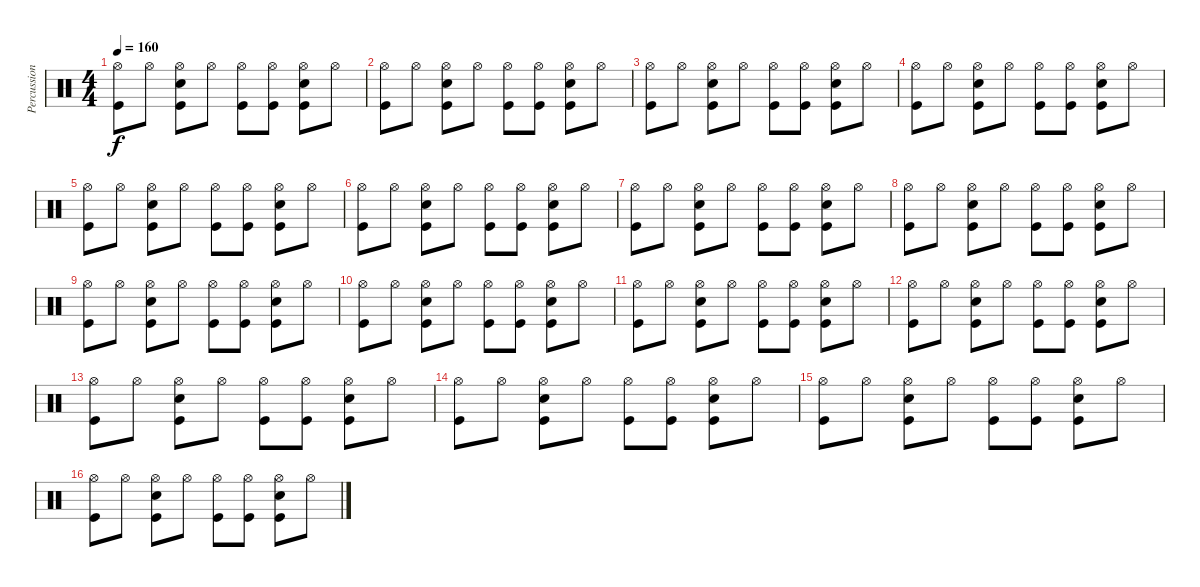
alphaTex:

\track ("Percussions" "Percussion") {instrument percussion}
\staff {score}
\articulation defaults
\ts (4 4)
\tempo 160
\clef neutral
\ks c
("Hi-Hat (open)" "Kick (hit)").8{dy f} "Hi-Hat (open)".8 ("Hi-Hat (open)" "Electric Snare (hit)" "Kick (hit)").8 "Hi-Hat (open)".8 ("Hi-Hat (open)" "Kick (hit)").8 ("Hi-Hat (open)" "Kick (hit)").8 ("Hi-Hat (open)" "Electric Snare (hit)" "Kick (hit)").8 "Hi-Hat (open)".8 |
("Hi-Hat (open)" "Kick (hit)").8 "Hi-Hat (open)".8 ("Hi-Hat (open)" "Electric Snare (hit)" "Kick (hit)").8 "Hi-Hat (open)".8 ("Hi-Hat (open)" "Kick (hit)").8 ("Hi-Hat (open)" "Kick (hit)").8 ("Hi-Hat (open)" "Electric Snare (hit)" "Kick (hit)").8 "Hi-Hat (open)".8 |
("Hi-Hat (open)" "Kick (hit)").8 "Hi-Hat (open)".8 ("Hi-Hat (open)" "Electric Snare (hit)" "Kick (hit)").8 "Hi-Hat (open)".8 ("Hi-Hat (open)" "Kick (hit)").8 ("Hi-Hat (open)" "Kick (hit)").8 ("Hi-Hat (open)" "Electric Snare (hit)" "Kick (hit)").8 "Hi-Hat (open)".8 |
("Hi-Hat (open)" "Kick (hit)").8 "Hi-Hat (open)".8 ("Hi-Hat (open)" "Electric Snare (hit)" "Kick (hit)").8 "Hi-Hat (open)".8 ("Hi-Hat (open)" "Kick (hit)").8 ("Hi-Hat (open)" "Kick (hit)").8 ("Hi-Hat (open)" "Electric Snare (hit)" "Kick (hit)").8 "Hi-Hat (open)".8 |
("Hi-Hat (open)" "Kick (hit)").8 "Hi-Hat (open)".8 ("Hi-Hat (open)" "Electric Snare (hit)" "Kick (hit)").8 "Hi-Hat (open)".8 ("Hi-Hat (open)" "Kick (hit)").8 ("Hi-Hat (open)" "Kick (hit)").8 ("Hi-Hat (open)" "Electric Snare (hit)" "Kick (hit)").8 "Hi-Hat (open)".8 |
("Hi-Hat (open)" "Kick (hit)").8 "Hi-Hat (open)".8 ("Hi-Hat (open)" "Electric Snare (hit)" "Kick (hit)").8 "Hi-Hat (open)".8 ("Hi-Hat (open)" "Kick (hit)").8 ("Hi-Hat (open)" "Kick (hit)").8 ("Hi-Hat (open)" "Electric Snare (hit)" "Kick (hit)").8 "Hi-Hat (open)".8 |
("Hi-Hat (open)" "Kick (hit)").8 "Hi-Hat (open)".8 ("Hi-Hat (open)" "Electric Snare (hit)" "Kick (hit)").8 "Hi-Hat (open)".8 ("Hi-Hat (open)" "Kick (hit)").8 ("Hi-Hat (open)" "Kick (hit)").8 ("Hi-Hat (open)" "Electric Snare (hit)" "Kick (hit)").8 "Hi-Hat (open)".8 |
("Hi-Hat (open)" "Kick (hit)").8 "Hi-Hat (open)".8 ("Hi-Hat (open)" "Electric Snare (hit)" "Kick (hit)").8 "Hi-Hat (open)".8 ("Hi-Hat (open)" "Kick (hit)").8 ("Hi-Hat (open)" "Kick (hit)").8 ("Hi-Hat (open)" "Electric Snare (hit)" "Kick (hit)").8 "Hi-Hat (open)".8 |
("Hi-Hat (open)" "Kick (hit)").8 "Hi-Hat (open)".8 ("Hi-Hat (open)" "Electric Snare (hit)" "Kick (hit)").8 "Hi-Hat (open)".8 ("Hi-Hat (open)" "Kick (hit)").8 ("Hi-Hat (open)" "Kick (hit)").8 ("Hi-Hat (open)" "Electric Snare (hit)" "Kick (hit)").8 "Hi-Hat (open)".8 |
("Hi-Hat (open)" "Kick (hit)").8 "Hi-Hat (open)".8 ("Hi-Hat (open)" "Electric Snare (hit)" "Kick (hit)").8 "Hi-Hat (open)".8 ("Hi-Hat (open)" "Kick (hit)").8 ("Hi-Hat (open)" "Kick (hit)").8 ("Hi-Hat (open)" "Electric Snare (hit)" "Kick (hit)").8 "Hi-Hat (open)".8 |
("Hi-Hat (open)" "Kick (hit)").8 "Hi-Hat (open)".8 ("Hi-Hat (open)" "Electric Snare (hit)" "Kick (hit)").8 "Hi-Hat (open)".8 ("Hi-Hat (open)" "Kick (hit)").8 ("Hi-Hat (open)" "Kick (hit)").8 ("Hi-Hat (open)" "Electric Snare (hit)" "Kick (hit)").8 "Hi-Hat (open)".8 |
("Hi-Hat (open)" "Kick (hit)").8 "Hi-Hat (open)".8 ("Hi-Hat (open)" "Electric Snare (hit)" "Kick (hit)").8 "Hi-Hat (open)".8 ("Hi-Hat (open)" "Kick (hit)").8 ("Hi-Hat (open)" "Kick (hit)").8 ("Hi-Hat (open)" "Electric Snare (hit)" "Kick (hit)").8 "Hi-Hat (open)".8 |
("Hi-Hat (open)" "Kick (hit)").8 "Hi-Hat (open)".8 ("Hi-Hat (open)" "Electric Snare (hit)" "Kick (hit)").8 "Hi-Hat (open)".8 ("Hi-Hat (open)" "Kick (hit)").8 ("Hi-Hat (open)" "Kick (hit)").8 ("Hi-Hat (open)" "Electric Snare (hit)" "Kick (hit)").8 "Hi-Hat (open)".8 |
("Hi-Hat (open)" "Kick (hit)").8 "Hi-Hat (open)".8 ("Hi-Hat (open)" "Electric Snare (hit)" "Kick (hit)").8 "Hi-Hat (open)".8 ("Hi-Hat (open)" "Kick (hit)").8 ("Hi-Hat (open)" "Kick (hit)").8 ("Hi-Hat (open)" "Electric Snare (hit)" "Kick (hit)").8 "Hi-Hat (open)".8 |
("Hi-Hat (open)" "Kick (hit)").8 "Hi-Hat (open)".8 ("Hi-Hat (open)" "Electric Snare (hit)" "Kick (hit)").8 "Hi-Hat (open)".8 ("Hi-Hat (open)" "Kick (hit)").8 ("Hi-Hat (open)" "Kick (hit)").8 ("Hi-Hat (open)" "Electric Snare (hit)" "Kick (hit)").8 "Hi-Hat (open)".8 |
("Hi-Hat (open)" "Kick (hit)").8 "Hi-Hat (open)".8 ("Hi-Hat (open)" "Electric Snare (hit)" "Kick (hit)").8 "Hi-Hat (open)".8 ("Hi-Hat (open)" "Kick (hit)").8 ("Hi-Hat (open)" "Kick (hit)").8 ("Hi-Hat (open)" "Electric Snare (hit)" "Kick (hit)").8 "Hi-Hat (open)".8
